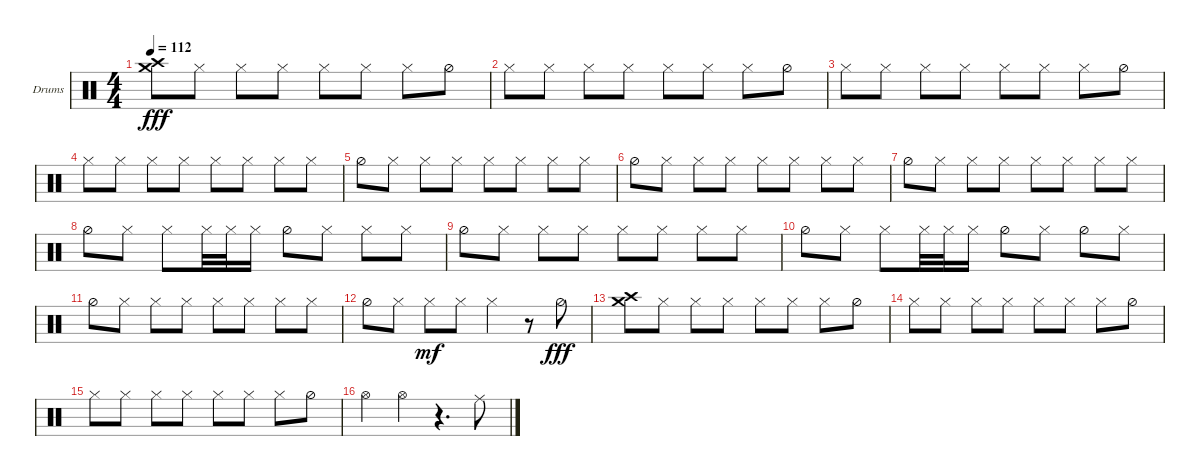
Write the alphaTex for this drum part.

\defaultSystemsLayout 4
\bracketExtendMode groupsimilarinstruments
\firstSystemTrackNameOrientation horizontal
\otherSystemsTrackNameOrientation horizontal
\track ("Helders" "Drums") {instrument percussion}
\staff {score}
\articulation defaults
\ts (4 4)
\tempo 112
\clef neutral
\ks c
("Crash high (hit)" "Crash medium (hit)").8{dy fff} "Hi-Hat (closed)".8 "Hi-Hat (closed)".8 "Hi-Hat (closed)".8 "Hi-Hat (closed)".8 "Hi-Hat (closed)".8 "Hi-Hat (closed)".8 "Hi-Hat (half)".8 |
"Hi-Hat (closed)".8 "Hi-Hat (closed)".8 "Hi-Hat (closed)".8 "Hi-Hat (closed)".8 "Hi-Hat (closed)".8 "Hi-Hat (closed)".8 "Hi-Hat (closed)".8 "Hi-Hat (half)".8 |
"Hi-Hat (closed)".8 "Hi-Hat (closed)".8 "Hi-Hat (closed)".8 "Hi-Hat (closed)".8 "Hi-Hat (closed)".8 "Hi-Hat (closed)".8 "Hi-Hat (closed)".8 "Hi-Hat (half)".8 |
"Hi-Hat (closed)".8 "Hi-Hat (closed)".8 "Hi-Hat (closed)".8 "Hi-Hat (closed)".8 "Hi-Hat (closed)".8 "Hi-Hat (closed)".8 "Hi-Hat (closed)".8 "Hi-Hat (closed)".8 |
"Hi-Hat (half)".8 "Hi-Hat (closed)".8 "Hi-Hat (closed)".8 "Hi-Hat (closed)".8 "Hi-Hat (closed)".8 "Hi-Hat (closed)".8 "Hi-Hat (closed)".8 "Hi-Hat (closed)".8 |
"Hi-Hat (half)".8 "Hi-Hat (closed)".8 "Hi-Hat (closed)".8 "Hi-Hat (closed)".8 "Hi-Hat (closed)".8 "Hi-Hat (closed)".8 "Hi-Hat (closed)".8 "Hi-Hat (closed)".8 |
"Hi-Hat (half)".8 "Hi-Hat (closed)".8 "Hi-Hat (closed)".8 "Hi-Hat (closed)".8 "Hi-Hat (closed)".8 "Hi-Hat (closed)".8 "Hi-Hat (closed)".8 "Hi-Hat (closed)".8 |
"Hi-Hat (half)".8 "Hi-Hat (closed)".8 "Hi-Hat (closed)".8 "Hi-Hat (closed)".32 "Hi-Hat (closed)".32 "Hi-Hat (closed)".16 "Hi-Hat (half)".8 "Hi-Hat (closed)".8 "Hi-Hat (closed)".8 "Hi-Hat (closed)".8 |
"Hi-Hat (half)".8 "Hi-Hat (closed)".8 "Hi-Hat (closed)".8 "Hi-Hat (closed)".8 "Hi-Hat (closed)".8 "Hi-Hat (closed)".8 "Hi-Hat (closed)".8 "Hi-Hat (closed)".8 |
"Hi-Hat (half)".8 "Hi-Hat (closed)".8 "Hi-Hat (closed)".8 "Hi-Hat (closed)".32 "Hi-Hat (closed)".32 "Hi-Hat (closed)".16 "Hi-Hat (half)".8 "Hi-Hat (closed)".8 "Hi-Hat (half)".8 "Hi-Hat (closed)".8 |
"Hi-Hat (half)".8 "Hi-Hat (closed)".8 "Hi-Hat (closed)".8 "Hi-Hat (closed)".8 "Hi-Hat (closed)".8 "Hi-Hat (closed)".8 "Hi-Hat (closed)".8 "Hi-Hat (closed)".8 |
"Hi-Hat (half)".8 "Hi-Hat (closed)".8 "Hi-Hat (closed)".8{dy mf} "Hi-Hat (closed)".8 "Hi-Hat (closed)".4 r.8 "Hi-Hat (half)".8{dy fff} |
("Crash high (hit)" "Crash medium (hit)").8 "Hi-Hat (closed)".8 "Hi-Hat (closed)".8 "Hi-Hat (closed)".8 "Hi-Hat (closed)".8 "Hi-Hat (closed)".8 "Hi-Hat (closed)".8 "Hi-Hat (half)".8 |
"Hi-Hat (closed)".8 "Hi-Hat (closed)".8 "Hi-Hat (closed)".8 "Hi-Hat (closed)".8 "Hi-Hat (closed)".8 "Hi-Hat (closed)".8 "Hi-Hat (closed)".8 "Hi-Hat (half)".8 |
"Hi-Hat (closed)".8 "Hi-Hat (closed)".8 "Hi-Hat (closed)".8 "Hi-Hat (closed)".8 "Hi-Hat (closed)".8 "Hi-Hat (closed)".8 "Hi-Hat (closed)".8 "Hi-Hat (half)".8 |
"Hi-Hat (open)".4 "Hi-Hat (open)".4 r.4{d} "Ride (middle)".8
